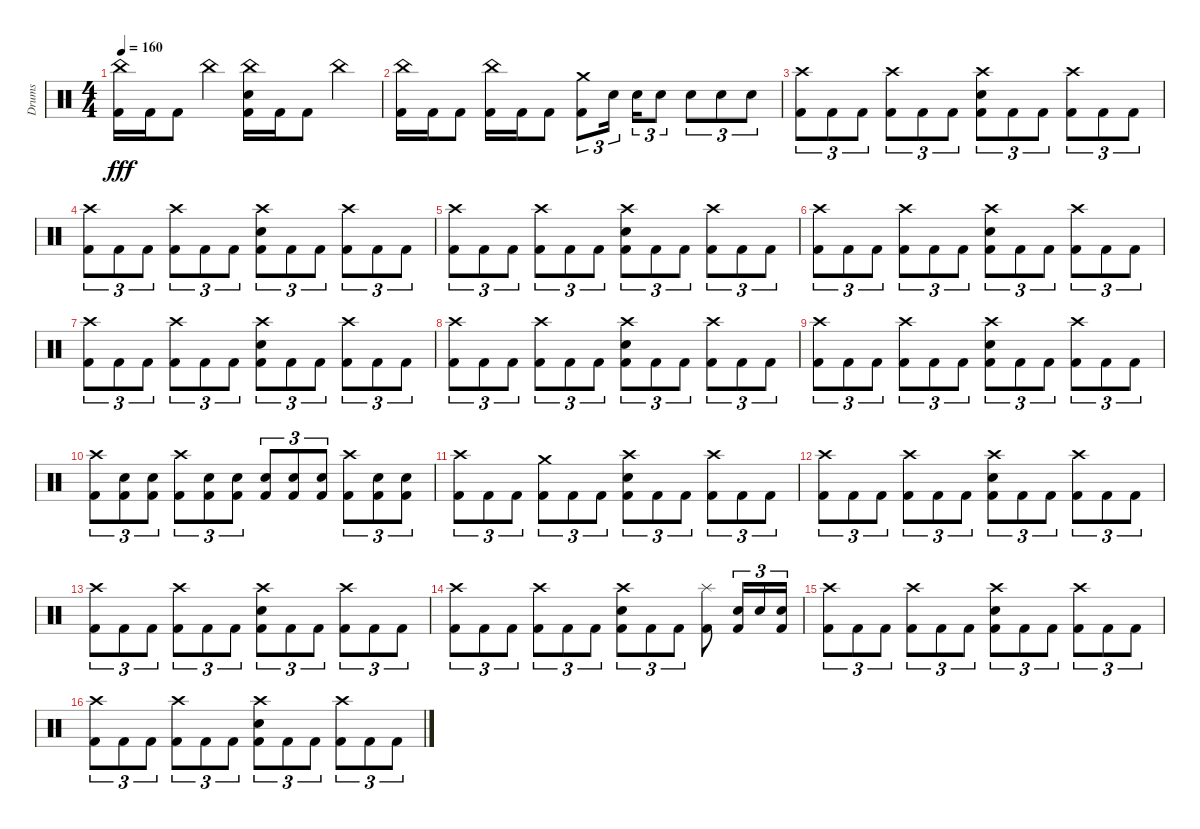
\track ("Drums" "Drums") {instrument percussion}
\staff {score}
\articulation defaults
\ts (4 4)
\tempo 160
\clef neutral
\ks c
("China (hit)" "Kick (hit) 2").16{dy fff} "Kick (hit) 2".16 "Kick (hit) 2".8 "China (hit)".4 ("China (hit)" "Snare (hit) 2" "Kick (hit) 2").16 "Kick (hit) 2".16 "Kick (hit) 2".8 "China (hit)".4 |
("China (hit)" "Kick (hit) 2").16 "Kick (hit) 2".16 "Kick (hit) 2".8 ("China (hit)" "Kick (hit) 2").16 "Kick (hit) 2".16 "Kick (hit) 2".8 ("Crash medium (hit)" "Kick (hit) 2").8{tu (3 2)} "Snare (hit) 2".16{tu (3 2) beam splitsecondary} "Snare (hit) 2".16{tu (3 2)} "Snare (hit) 2".8{tu (3 2)} "Snare (hit) 2".8{tu (3 2)} "Snare (hit) 2".8{tu (3 2)} "Snare (hit) 2".8{tu (3 2)} |
("Crash high (hit)" "Kick (hit) 2").8{tu (3 2)} "Kick (hit) 2".8{tu (3 2)} "Kick (hit) 2".8{tu (3 2)} ("Crash high (hit)" "Kick (hit) 2").8{tu (3 2)} "Kick (hit) 2".8{tu (3 2)} "Kick (hit) 2".8{tu (3 2)} ("Crash high (hit)" "Snare (hit) 2" "Kick (hit) 2").8{tu (3 2)} "Kick (hit) 2".8{tu (3 2)} "Kick (hit) 2".8{tu (3 2)} ("Crash high (hit)" "Kick (hit) 2").8{tu (3 2)} "Kick (hit) 2".8{tu (3 2)} "Kick (hit) 2".8{tu (3 2)} |
("Crash high (hit)" "Kick (hit) 2").8{tu (3 2)} "Kick (hit) 2".8{tu (3 2)} "Kick (hit) 2".8{tu (3 2)} ("Crash high (hit)" "Kick (hit) 2").8{tu (3 2)} "Kick (hit) 2".8{tu (3 2)} "Kick (hit) 2".8{tu (3 2)} ("Crash high (hit)" "Snare (hit) 2" "Kick (hit) 2").8{tu (3 2)} "Kick (hit) 2".8{tu (3 2)} "Kick (hit) 2".8{tu (3 2)} ("Crash high (hit)" "Kick (hit) 2").8{tu (3 2)} "Kick (hit) 2".8{tu (3 2)} "Kick (hit) 2".8{tu (3 2)} |
("Crash high (hit)" "Kick (hit) 2").8{tu (3 2)} "Kick (hit) 2".8{tu (3 2)} "Kick (hit) 2".8{tu (3 2)} ("Crash high (hit)" "Kick (hit) 2").8{tu (3 2)} "Kick (hit) 2".8{tu (3 2)} "Kick (hit) 2".8{tu (3 2)} ("Crash high (hit)" "Snare (hit) 2" "Kick (hit) 2").8{tu (3 2)} "Kick (hit) 2".8{tu (3 2)} "Kick (hit) 2".8{tu (3 2)} ("Crash high (hit)" "Kick (hit) 2").8{tu (3 2)} "Kick (hit) 2".8{tu (3 2)} "Kick (hit) 2".8{tu (3 2)} |
("Crash high (hit)" "Kick (hit) 2").8{tu (3 2)} "Kick (hit) 2".8{tu (3 2)} "Kick (hit) 2".8{tu (3 2)} ("Crash high (hit)" "Kick (hit) 2").8{tu (3 2)} "Kick (hit) 2".8{tu (3 2)} "Kick (hit) 2".8{tu (3 2)} ("Crash high (hit)" "Snare (hit) 2" "Kick (hit) 2").8{tu (3 2)} "Kick (hit) 2".8{tu (3 2)} "Kick (hit) 2".8{tu (3 2)} ("Crash high (hit)" "Kick (hit) 2").8{tu (3 2)} "Kick (hit) 2".8{tu (3 2)} "Kick (hit) 2".8{tu (3 2)} |
("Crash high (hit)" "Kick (hit) 2").8{tu (3 2)} "Kick (hit) 2".8{tu (3 2)} "Kick (hit) 2".8{tu (3 2)} ("Crash high (hit)" "Kick (hit) 2").8{tu (3 2)} "Kick (hit) 2".8{tu (3 2)} "Kick (hit) 2".8{tu (3 2)} ("Crash high (hit)" "Snare (hit) 2" "Kick (hit) 2").8{tu (3 2)} "Kick (hit) 2".8{tu (3 2)} "Kick (hit) 2".8{tu (3 2)} ("Crash high (hit)" "Kick (hit) 2").8{tu (3 2)} "Kick (hit) 2".8{tu (3 2)} "Kick (hit) 2".8{tu (3 2)} |
("Crash high (hit)" "Kick (hit) 2").8{tu (3 2)} "Kick (hit) 2".8{tu (3 2)} "Kick (hit) 2".8{tu (3 2)} ("Crash high (hit)" "Kick (hit) 2").8{tu (3 2)} "Kick (hit) 2".8{tu (3 2)} "Kick (hit) 2".8{tu (3 2)} ("Crash high (hit)" "Snare (hit) 2" "Kick (hit) 2").8{tu (3 2)} "Kick (hit) 2".8{tu (3 2)} "Kick (hit) 2".8{tu (3 2)} ("Crash high (hit)" "Kick (hit) 2").8{tu (3 2)} "Kick (hit) 2".8{tu (3 2)} "Kick (hit) 2".8{tu (3 2)} |
("Crash high (hit)" "Kick (hit) 2").8{tu (3 2)} "Kick (hit) 2".8{tu (3 2)} "Kick (hit) 2".8{tu (3 2)} ("Crash high (hit)" "Kick (hit) 2").8{tu (3 2)} "Kick (hit) 2".8{tu (3 2)} "Kick (hit) 2".8{tu (3 2)} ("Crash high (hit)" "Snare (hit) 2" "Kick (hit) 2").8{tu (3 2)} "Kick (hit) 2".8{tu (3 2)} "Kick (hit) 2".8{tu (3 2)} ("Crash high (hit)" "Kick (hit) 2").8{tu (3 2)} "Kick (hit) 2".8{tu (3 2)} "Kick (hit) 2".8{tu (3 2)} |
("Crash high (hit)" "Kick (hit) 2").8{tu (3 2)} ("Snare (hit) 2" "Kick (hit) 2").8{tu (3 2)} ("Snare (hit) 2" "Kick (hit) 2").8{tu (3 2)} ("Crash high (hit)" "Kick (hit) 2").8{tu (3 2)} ("Snare (hit) 2" "Kick (hit) 2").8{tu (3 2)} ("Snare (hit) 2" "Kick (hit) 2").8{tu (3 2)} ("Snare (hit) 2" "Kick (hit) 2").8{tu (3 2)} ("Snare (hit) 2" "Kick (hit) 2").8{tu (3 2)} ("Snare (hit) 2" "Kick (hit) 2").8{tu (3 2)} ("Crash high (hit)" "Kick (hit) 2").8{tu (3 2)} ("Snare (hit) 2" "Kick (hit) 2").8{tu (3 2)} ("Snare (hit) 2" "Kick (hit) 2").8{tu (3 2)} |
("Crash high (hit)" "Kick (hit) 2").8{tu (3 2)} "Kick (hit) 2".8{tu (3 2)} "Kick (hit) 2".8{tu (3 2)} ("Crash medium (hit)" "Kick (hit) 2").8{tu (3 2)} "Kick (hit) 2".8{tu (3 2)} "Kick (hit) 2".8{tu (3 2)} ("Crash high (hit)" "Snare (hit) 2" "Kick (hit) 2").8{tu (3 2)} "Kick (hit) 2".8{tu (3 2)} "Kick (hit) 2".8{tu (3 2)} ("Crash high (hit)" "Kick (hit) 2").8{tu (3 2)} "Kick (hit) 2".8{tu (3 2)} "Kick (hit) 2".8{tu (3 2)} |
("Crash high (hit)" "Kick (hit) 2").8{tu (3 2)} "Kick (hit) 2".8{tu (3 2)} "Kick (hit) 2".8{tu (3 2)} ("Crash high (hit)" "Kick (hit) 2").8{tu (3 2)} "Kick (hit) 2".8{tu (3 2)} "Kick (hit) 2".8{tu (3 2)} ("Crash high (hit)" "Snare (hit) 2" "Kick (hit) 2").8{tu (3 2)} "Kick (hit) 2".8{tu (3 2)} "Kick (hit) 2".8{tu (3 2)} ("Crash high (hit)" "Kick (hit) 2").8{tu (3 2)} "Kick (hit) 2".8{tu (3 2)} "Kick (hit) 2".8{tu (3 2)} |
("Crash high (hit)" "Kick (hit) 2").8{tu (3 2)} "Kick (hit) 2".8{tu (3 2)} "Kick (hit) 2".8{tu (3 2)} ("Crash high (hit)" "Kick (hit) 2").8{tu (3 2)} "Kick (hit) 2".8{tu (3 2)} "Kick (hit) 2".8{tu (3 2)} ("Crash high (hit)" "Snare (hit) 2" "Kick (hit) 2").8{tu (3 2)} "Kick (hit) 2".8{tu (3 2)} "Kick (hit) 2".8{tu (3 2)} ("Crash high (hit)" "Kick (hit) 2").8{tu (3 2)} "Kick (hit) 2".8{tu (3 2)} "Kick (hit) 2".8{tu (3 2)} |
("Crash high (hit)" "Kick (hit) 2").8{tu (3 2)} "Kick (hit) 2".8{tu (3 2)} "Kick (hit) 2".8{tu (3 2)} ("Crash high (hit)" "Kick (hit) 2").8{tu (3 2)} "Kick (hit) 2".8{tu (3 2)} "Kick (hit) 2".8{tu (3 2)} ("Crash high (hit)" "Snare (hit) 2" "Kick (hit) 2").8{tu (3 2)} "Kick (hit) 2".8{tu (3 2)} "Kick (hit) 2".8{tu (3 2)} ("Splash (hit)" "Kick (hit) 2").8 ("Snare (hit) 2" "Kick (hit) 2").16{tu (3 2)} "Snare (hit) 2".16{tu (3 2)} ("Snare (hit) 2" "Kick (hit) 2").16{tu (3 2)} |
("Crash high (hit)" "Kick (hit) 2").8{tu (3 2)} "Kick (hit) 2".8{tu (3 2)} "Kick (hit) 2".8{tu (3 2)} ("Crash high (hit)" "Kick (hit) 2").8{tu (3 2)} "Kick (hit) 2".8{tu (3 2)} "Kick (hit) 2".8{tu (3 2)} ("Crash high (hit)" "Snare (hit) 2" "Kick (hit) 2").8{tu (3 2)} "Kick (hit) 2".8{tu (3 2)} "Kick (hit) 2".8{tu (3 2)} ("Crash high (hit)" "Kick (hit) 2").8{tu (3 2)} "Kick (hit) 2".8{tu (3 2)} "Kick (hit) 2".8{tu (3 2)} |
("Crash high (hit)" "Kick (hit) 2").8{tu (3 2)} "Kick (hit) 2".8{tu (3 2)} "Kick (hit) 2".8{tu (3 2)} ("Crash high (hit)" "Kick (hit) 2").8{tu (3 2)} "Kick (hit) 2".8{tu (3 2)} "Kick (hit) 2".8{tu (3 2)} ("Crash high (hit)" "Snare (hit) 2" "Kick (hit) 2").8{tu (3 2)} "Kick (hit) 2".8{tu (3 2)} "Kick (hit) 2".8{tu (3 2)} ("Crash high (hit)" "Kick (hit) 2").8{tu (3 2)} "Kick (hit) 2".8{tu (3 2)} "Kick (hit) 2".8{tu (3 2)}
